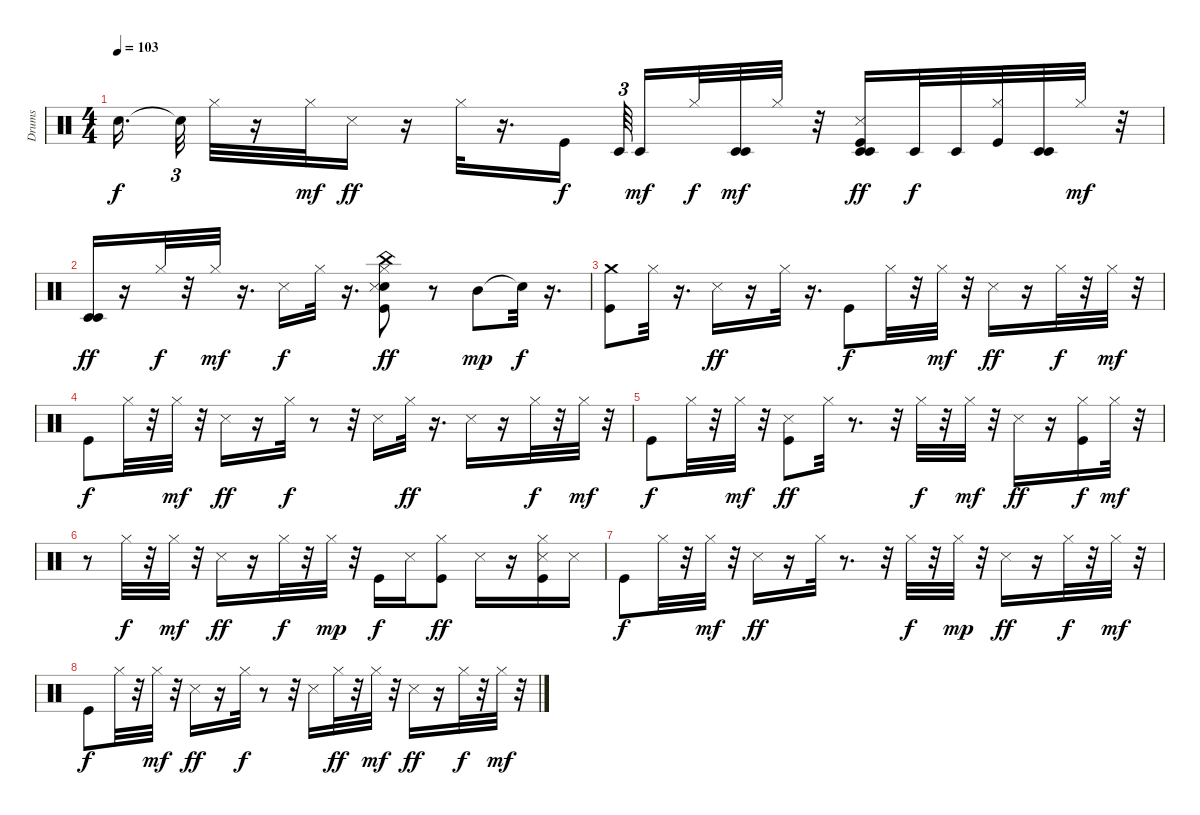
\track ("Drums" "Drums") {instrument percussion}
\staff {score}
\articulation defaults
\ts (4 4)
\tempo 103
\clef neutral
\ks c "Snare (hit)"{t}.16{d dy f beam splitsecondary} "Snare (hit)"{t}.32{tu (3 2)} "Hi-Hat (closed)".32
r.16 "Hi-Hat (closed)".32{dy mf} "Snare (side stick) 3".16{dy ff} r.16 "Hi-Hat (closed)".32 r.16{d} "Kick (hit)".16{dy f} "Timbale low (hit)".64{tu (3 2) beam splitsecondary} "Timbale low (hit)".16{dy mf} "Hi-Hat (closed)".32{dy f} ("Timbale low (hit)" "Timbale low (hit)").32{dy mf} "Hi-Hat (closed)".32 r.32 ("Timbale low (hit)" "Timbale low (hit)" "Kick (hit)" "Snare (side stick) 3").16{dy ff} "Timbale low (hit)".32{dy f} "Timbale low (hit)".32 ("Kick (hit)" "Hi-Hat (closed)").32 ("Timbale low (hit)" "Timbale low (hit)").32 "Hi-Hat (closed)".32{dy mf} r.32 |
("Timbale low (hit)" "Timbale low (hit)").16{dy ff} r.16 "Hi-Hat (closed)".32{dy f} r.32 "Hi-Hat (closed)".32{dy mf} r.16{d} "Snare (side stick) 3".16{dy f} "Hi-Hat (closed)".32 r.16{d} ("Snare (hit) 2" "Kick (hit)" "China (hit)" "Snare (side stick) 3" "Hi-Hat (closed)").8{dy ff} r.8 "Mid Tom (hit)".8{dy mp} "Snare (hit)"{t}.32{dy f} r.16{d} |
("Kick (hit)" "Crash medium (hit)").8 "Hi-Hat (closed)".32 r.16{d} "Snare (side stick) 3".16{dy ff} r.16 "Hi-Hat (closed)".32 r.16{d} "Kick (hit)".8{dy f} "Hi-Hat (closed)".32 r.32 "Hi-Hat (closed)".32{dy mf} r.32 "Snare (side stick) 3".16{dy ff} r.16 "Hi-Hat (closed)".32{dy f} r.32 "Hi-Hat (closed)".32{dy mf} r.32 |
"Kick (hit)".8{dy f} "Hi-Hat (closed)".32 r.32 "Hi-Hat (closed)".32{dy mf} r.32 "Snare (side stick) 3".16{dy ff} r.16 "Hi-Hat (closed)".32{dy f} r.8 r.32 "Snare (side stick) 3".16 "Hi-Hat (closed)".32{dy ff} r.16{d} "Snare (side stick) 3".16 r.16 "Hi-Hat (closed)".32{dy f} r.32 "Hi-Hat (closed)".32{dy mf} r.32 |
"Kick (hit)".8{dy f} "Hi-Hat (closed)".32 r.32 "Hi-Hat (closed)".32{dy mf} r.32 ("Kick (hit)" "Snare (side stick) 3").8{dy ff} "Hi-Hat (closed)".32 r.8{d} r.32 "Hi-Hat (closed)".32{dy f} r.32 "Hi-Hat (closed)".32{dy mf} r.32 "Snare (side stick) 3".16{dy ff} r.16 ("Kick (hit)" "Hi-Hat (closed)").16{dy f} "Hi-Hat (closed)".32{dy mf} r.32 |
r.8 "Hi-Hat (closed)".32{dy f} r.32 "Hi-Hat (closed)".32{dy mf} r.32 "Snare (side stick) 3".16{dy ff} r.16 "Hi-Hat (closed)".32{dy f} r.32 "Hi-Hat (closed)".32{dy mp} r.32 "Kick (hit)".16{dy f} "Snare (side stick) 3".16 ("Kick (hit)" "Hi-Hat (closed)").8{dy ff} "Snare (side stick) 3".16 r.16 ("Kick (hit)" "Snare (side stick) 3" "Hi-Hat (closed)").16 "Snare (side stick) 3".16 |
"Kick (hit)".8{dy f} "Hi-Hat (closed)".32 r.32 "Hi-Hat (closed)".32{dy mf} r.32 "Snare (side stick) 3".16{dy ff} r.16 "Hi-Hat (closed)".32 r.8{d} r.32 "Hi-Hat (closed)".32{dy f} r.32 "Hi-Hat (closed)".32{dy mp} r.32 "Snare (side stick) 3".16{dy ff} r.16 "Hi-Hat (closed)".32{dy f} r.32 "Hi-Hat (closed)".32{dy mf} r.32 |
"Kick (hit)".8{dy f} "Hi-Hat (closed)".32 r.32 "Hi-Hat (closed)".32{dy mf} r.32 "Snare (side stick) 3".16{dy ff} r.16 "Hi-Hat (closed)".32{dy f} r.8 r.32 "Snare (side stick) 3".16 "Hi-Hat (closed)".32{dy ff} r.32 "Hi-Hat (closed)".32{dy mf} r.32 "Snare (side stick) 3".16{dy ff} r.16 "Hi-Hat (closed)".32{dy f} r.32 "Hi-Hat (closed)".32{dy mf} r.32
